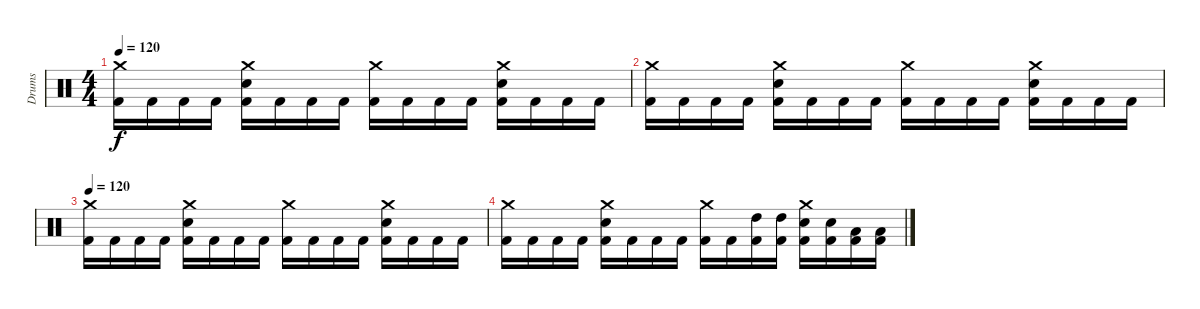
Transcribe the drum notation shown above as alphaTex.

\track ("Drums" "Drums") {instrument percussion}
\staff {score}
\articulation defaults
\ts (4 4)
\tempo 120
\clef neutral
\ks c
("Crash medium (hit)" "Kick (hit) 2").16{dy f} "Kick (hit) 2".16 "Kick (hit) 2".16 "Kick (hit) 2".16 ("Crash medium (hit)" "Electric Snare (hit)" "Kick (hit) 2").16 "Kick (hit) 2".16 "Kick (hit) 2".16 "Kick (hit) 2".16 ("Crash medium (hit)" "Kick (hit) 2").16 "Kick (hit) 2".16 "Kick (hit) 2".16 "Kick (hit) 2".16 ("Crash medium (hit)" "Electric Snare (hit)" "Kick (hit) 2").16 "Kick (hit) 2".16 "Kick (hit) 2".16 "Kick (hit) 2".16 |
("Crash medium (hit)" "Kick (hit) 2").16 "Kick (hit) 2".16 "Kick (hit) 2".16 "Kick (hit) 2".16 ("Crash medium (hit)" "Electric Snare (hit)" "Kick (hit) 2").16 "Kick (hit) 2".16 "Kick (hit) 2".16 "Kick (hit) 2".16 ("Crash medium (hit)" "Kick (hit) 2").16 "Kick (hit) 2".16 "Kick (hit) 2".16 "Kick (hit) 2".16 ("Crash medium (hit)" "Electric Snare (hit)" "Kick (hit) 2").16 "Kick (hit) 2".16 "Kick (hit) 2".16 "Kick (hit) 2".16 |
\tempo 120
("Crash medium (hit)" "Kick (hit) 2").16 "Kick (hit) 2".16 "Kick (hit) 2".16 "Kick (hit) 2".16 ("Crash medium (hit)" "Electric Snare (hit)" "Kick (hit) 2").16 "Kick (hit) 2".16 "Kick (hit) 2".16 "Kick (hit) 2".16 ("Crash medium (hit)" "Kick (hit) 2").16 "Kick (hit) 2".16 "Kick (hit) 2".16 "Kick (hit) 2".16 ("Crash medium (hit)" "Electric Snare (hit)" "Kick (hit) 2").16 "Kick (hit) 2".16 "Kick (hit) 2".16 "Kick (hit) 2".16 |
("Crash medium (hit)" "Kick (hit) 2").16 "Kick (hit) 2".16 "Kick (hit) 2".16 "Kick (hit) 2".16 ("Crash medium (hit)" "Electric Snare (hit)" "Kick (hit) 2").16 "Kick (hit) 2".16 "Kick (hit) 2".16 "Kick (hit) 2".16 ("Crash medium (hit)" "Kick (hit) 2").16 "Kick (hit) 2".16 ("High Tom (hit)" "Kick (hit) 2").16 ("High Tom (hit)" "Kick (hit) 2").16 ("Crash medium (hit)" "Electric Snare (hit)" "Kick (hit) 2").16 ("Electric Snare (hit)" "Kick (hit) 2").16 ("Low Tom (hit)" "Kick (hit) 2").16 ("Low Tom (hit)" "Kick (hit) 2").16
